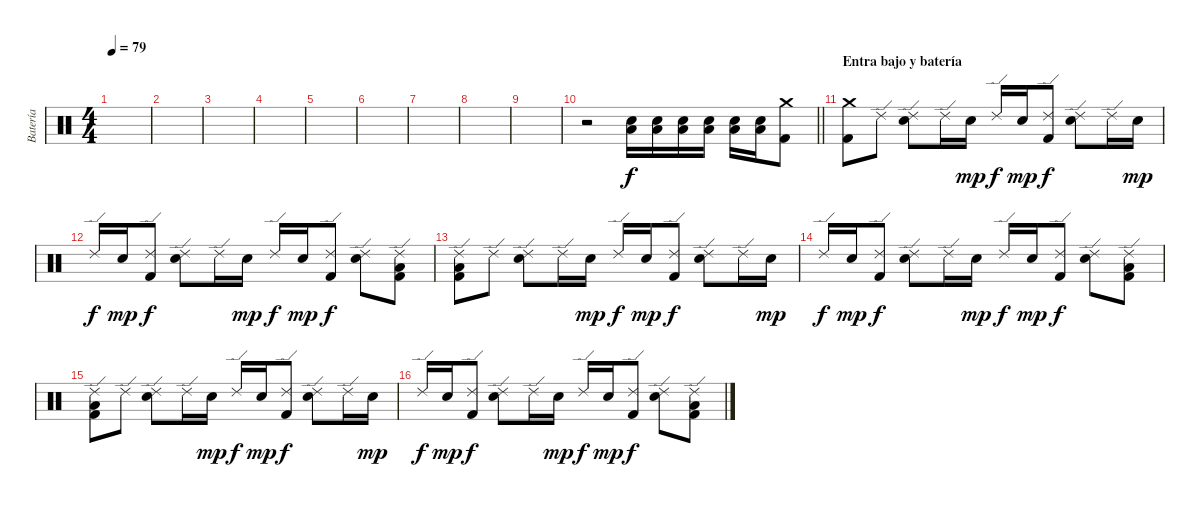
\track ("Batería" "Batería") {instrument percussion}
\staff {score}
\articulation defaults
\ts (4 4)
\tempo 79
\clef neutral
\ks c
|
|
|
|
|
|
|
|
|
\barLineRight lightlight
r.2 ("Low Floor Tom (hit)" "Snare (hit) 2").16 ("Low Floor Tom (hit)" "Snare (hit) 2").16 ("Low Floor Tom (hit)" "Snare (hit) 2").16 ("Low Floor Tom (hit)" "Snare (hit) 2").16 ("Low Floor Tom (hit)" "Snare (hit) 2").16 ("Low Floor Tom (hit)" "Snare (hit) 2").16 ("Crash medium (hit)" "Kick (hit) 2").8 |
\section ("" "Entra bajo y batería")
("Crash medium (hit)" "Kick (hit) 2").8 "Ride (edge) 2".8 ("Ride (edge) 2" "Snare (hit) 2").8 "Ride (edge) 2".16 "Snare (hit) 2".16{dy mp} "Ride (edge) 2".16{dy f} "Snare (hit) 2".16{dy mp} ("Ride (edge) 2" "Kick (hit) 2").8{dy f} ("Ride (edge) 2" "Snare (hit) 2").8 "Ride (edge) 2".16 "Snare (hit) 2".16{dy mp} |
"Ride (edge) 2".16{dy f} "Snare (hit) 2".16{dy mp} ("Ride (edge) 2" "Kick (hit) 2").8{dy f} ("Ride (edge) 2" "Snare (hit) 2").8 "Ride (edge) 2".16 "Snare (hit) 2".16{dy mp} "Ride (edge) 2".16{dy f} "Snare (hit) 2".16{dy mp} ("Ride (edge) 2" "Kick (hit) 2").8{dy f} ("Ride (edge) 2" "Snare (hit) 2").8 ("Ride (edge) 2" "Low Floor Tom (hit)" "Kick (hit) 2").8 |
("Ride (edge) 2" "Low Floor Tom (hit)" "Kick (hit) 2").8 "Ride (edge) 2".8 ("Ride (edge) 2" "Snare (hit) 2").8 "Ride (edge) 2".16 "Snare (hit) 2".16{dy mp} "Ride (edge) 2".16{dy f} "Snare (hit) 2".16{dy mp} ("Ride (edge) 2" "Kick (hit) 2").8{dy f} ("Ride (edge) 2" "Snare (hit) 2").8 "Ride (edge) 2".16 "Snare (hit) 2".16{dy mp} |
"Ride (edge) 2".16{dy f} "Snare (hit) 2".16{dy mp} ("Ride (edge) 2" "Kick (hit) 2").8{dy f} ("Ride (edge) 2" "Snare (hit) 2").8 "Ride (edge) 2".16 "Snare (hit) 2".16{dy mp} "Ride (edge) 2".16{dy f} "Snare (hit) 2".16{dy mp} ("Ride (edge) 2" "Kick (hit) 2").8{dy f} ("Ride (edge) 2" "Snare (hit) 2").8 ("Ride (edge) 2" "Low Floor Tom (hit)" "Kick (hit) 2").8 |
("Ride (edge) 2" "Low Floor Tom (hit)" "Kick (hit) 2").8 "Ride (edge) 2".8 ("Ride (edge) 2" "Snare (hit) 2").8 "Ride (edge) 2".16 "Snare (hit) 2".16{dy mp} "Ride (edge) 2".16{dy f} "Snare (hit) 2".16{dy mp} ("Ride (edge) 2" "Kick (hit) 2").8{dy f} ("Ride (edge) 2" "Snare (hit) 2").8 "Ride (edge) 2".16 "Snare (hit) 2".16{dy mp} |
"Ride (edge) 2".16{dy f} "Snare (hit) 2".16{dy mp} ("Ride (edge) 2" "Kick (hit) 2").8{dy f} ("Ride (edge) 2" "Snare (hit) 2").8 "Ride (edge) 2".16 "Snare (hit) 2".16{dy mp} "Ride (edge) 2".16{dy f} "Snare (hit) 2".16{dy mp} ("Ride (edge) 2" "Kick (hit) 2").8{dy f} ("Ride (edge) 2" "Snare (hit) 2").8 ("Ride (edge) 2" "Low Floor Tom (hit)" "Kick (hit) 2").8
